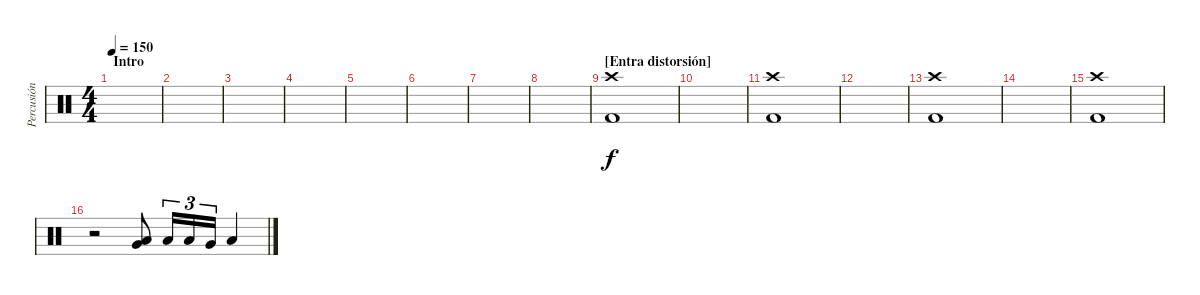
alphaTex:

\track ("Percusión" "Percusión") {instrument percussion}
\staff {score}
\articulation defaults
\ts (4 4)
\section ("" "Intro")
\tempo 150
\clef neutral
\ks c
|
|
|
|
|
|
|
|
\section ("" "[Entra distorsión]")
("Crash high (hit)" "Kick (hit) 2").1 |
|
("Crash high (hit)" "Kick (hit) 2").1 |
|
("Crash high (hit)" "Kick (hit) 2").1 |
|
("Crash high (hit)" "Kick (hit) 2").1 |
r.2 ("Low Floor Tom (hit)" "Very Low Tom (hit)").8 "Low Tom (hit)".16{tu (3 2)} "Low Tom (hit)".16{tu (3 2)} "Very Low Tom (hit)".16{tu (3 2)} "Low Floor Tom (hit)".4
